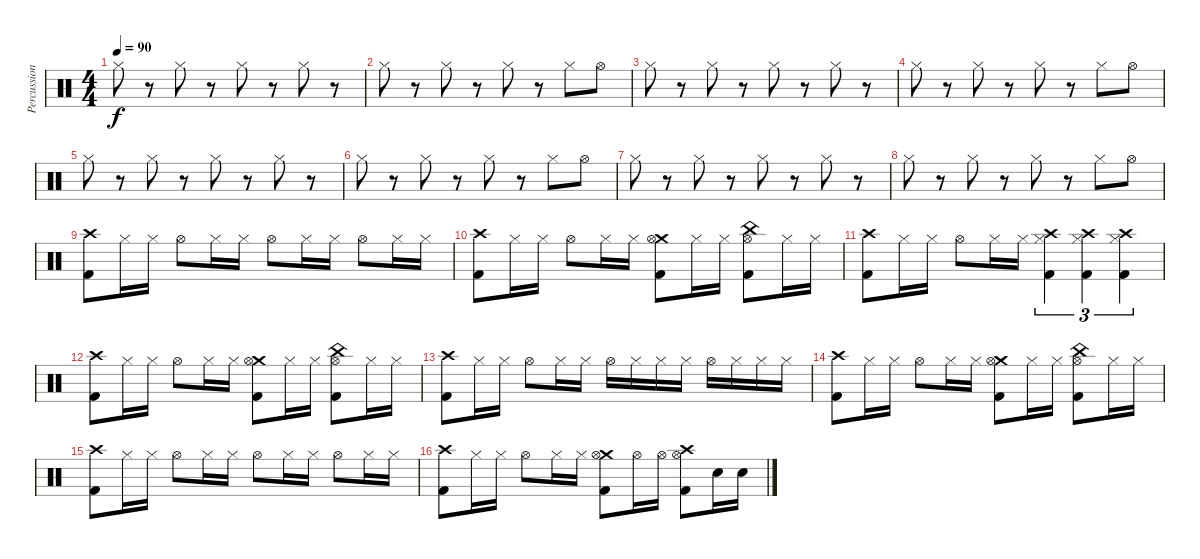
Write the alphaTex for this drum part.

\track ("Percussion" "Percussion") {instrument percussion}
\staff {score}
\articulation defaults
\ts (4 4)
\tempo 90
\clef neutral
\ks c "Hi-Hat (closed)".8{dy f}
r.8 "Hi-Hat (closed)".8 r.8 "Hi-Hat (closed)".8 r.8 "Hi-Hat (closed)".8 r.8 |
"Hi-Hat (closed)".8 r.8 "Hi-Hat (closed)".8 r.8 "Hi-Hat (closed)".8 r.8 "Hi-Hat (closed)".8 "Hi-Hat (open)".8 |
"Hi-Hat (closed)".8 r.8 "Hi-Hat (closed)".8 r.8 "Hi-Hat (closed)".8 r.8 "Hi-Hat (closed)".8 r.8 |
"Hi-Hat (closed)".8 r.8 "Hi-Hat (closed)".8 r.8 "Hi-Hat (closed)".8 r.8 "Hi-Hat (closed)".8 "Hi-Hat (open)".8 |
"Hi-Hat (closed)".8 r.8 "Hi-Hat (closed)".8 r.8 "Hi-Hat (closed)".8 r.8 "Hi-Hat (closed)".8 r.8 |
"Hi-Hat (closed)".8 r.8 "Hi-Hat (closed)".8 r.8 "Hi-Hat (closed)".8 r.8 "Hi-Hat (closed)".8 "Hi-Hat (open)".8 |
"Hi-Hat (closed)".8 r.8 "Hi-Hat (closed)".8 r.8 "Hi-Hat (closed)".8 r.8 "Hi-Hat (closed)".8 r.8 |
"Hi-Hat (closed)".8 r.8 "Hi-Hat (closed)".8 r.8 "Hi-Hat (closed)".8 r.8 "Hi-Hat (closed)".8 "Hi-Hat (open)".8 |
("Crash high (hit)" "Kick (hit) 2").8 "Hi-Hat (closed)".16 "Hi-Hat (closed)".16 "Hi-Hat (open)".8 "Hi-Hat (closed)".16 "Hi-Hat (closed)".16 "Hi-Hat (open)".8 "Hi-Hat (closed)".16 "Hi-Hat (closed)".16 "Hi-Hat (open)".8 "Hi-Hat (closed)".16 "Hi-Hat (closed)".16 |
("Crash high (hit)" "Kick (hit) 2").8 "Hi-Hat (closed)".16 "Hi-Hat (closed)".16 "Hi-Hat (open)".8 "Hi-Hat (closed)".16 "Hi-Hat (closed)".16 ("Crash medium (hit)" "Hi-Hat (open)" "Kick (hit) 2").8 "Hi-Hat (closed)".16 "Hi-Hat (closed)".16 ("China (hit)" "Hi-Hat (open)" "Kick (hit) 2").8 "Hi-Hat (closed)".16 "Hi-Hat (closed)".16 |
("Crash high (hit)" "Kick (hit) 2").8 "Hi-Hat (closed)".16 "Hi-Hat (closed)".16 "Hi-Hat (open)".8 "Hi-Hat (closed)".16 "Hi-Hat (closed)".16 ("Crash high (hit)" "Hi-Hat (closed)" "Kick (hit) 2").4{tu (3 2)} ("Crash high (hit)" "Hi-Hat (closed)" "Kick (hit) 2").4{tu (3 2)} ("Crash high (hit)" "Hi-Hat (closed)" "Kick (hit) 2").4{tu (3 2)} |
("Crash high (hit)" "Kick (hit) 2").8 "Hi-Hat (closed)".16 "Hi-Hat (closed)".16 "Hi-Hat (open)".8 "Hi-Hat (closed)".16 "Hi-Hat (closed)".16 ("Crash medium (hit)" "Hi-Hat (open)" "Kick (hit) 2").8 "Hi-Hat (closed)".16 "Hi-Hat (closed)".16 ("China (hit)" "Hi-Hat (open)" "Kick (hit) 2").8 "Hi-Hat (closed)".16 "Hi-Hat (closed)".16 |
("Crash high (hit)" "Kick (hit) 2").8 "Hi-Hat (closed)".16 "Hi-Hat (closed)".16 "Hi-Hat (open)".8 "Hi-Hat (closed)".16 "Hi-Hat (closed)".16 "Hi-Hat (open)".16 "Hi-Hat (closed)".16 "Hi-Hat (closed)".16 "Hi-Hat (closed)".16 "Hi-Hat (open)".16 "Hi-Hat (closed)".16 "Hi-Hat (closed)".16 "Hi-Hat (closed)".16 |
("Crash high (hit)" "Kick (hit) 2").8 "Hi-Hat (closed)".16 "Hi-Hat (closed)".16 "Hi-Hat (open)".8 "Hi-Hat (closed)".16 "Hi-Hat (closed)".16 ("Crash medium (hit)" "Hi-Hat (open)" "Kick (hit) 2").8 "Hi-Hat (closed)".16 "Hi-Hat (closed)".16 ("China (hit)" "Hi-Hat (open)" "Kick (hit) 2").8 "Hi-Hat (closed)".16 "Hi-Hat (closed)".16 |
("Crash high (hit)" "Kick (hit) 2").8 "Hi-Hat (closed)".16 "Hi-Hat (closed)".16 "Hi-Hat (open)".8 "Hi-Hat (closed)".16 "Hi-Hat (closed)".16 "Hi-Hat (open)".8 "Hi-Hat (closed)".16 "Hi-Hat (closed)".16 "Hi-Hat (open)".8 "Hi-Hat (closed)".16 "Hi-Hat (closed)".16 |
("Crash high (hit)" "Kick (hit) 2").8 "Hi-Hat (closed)".16 "Hi-Hat (closed)".16 "Hi-Hat (open)".8 "Hi-Hat (closed)".16 "Hi-Hat (closed)".16 ("Crash medium (hit)" "Hi-Hat (open)" "Kick (hit) 2").8 "Hi-Hat (open)".16 "Hi-Hat (open)".16 ("Crash high (hit)" "Hi-Hat (open)" "Kick (hit) 2").8 "Snare (hit) 2".16 "Snare (hit) 2".16
